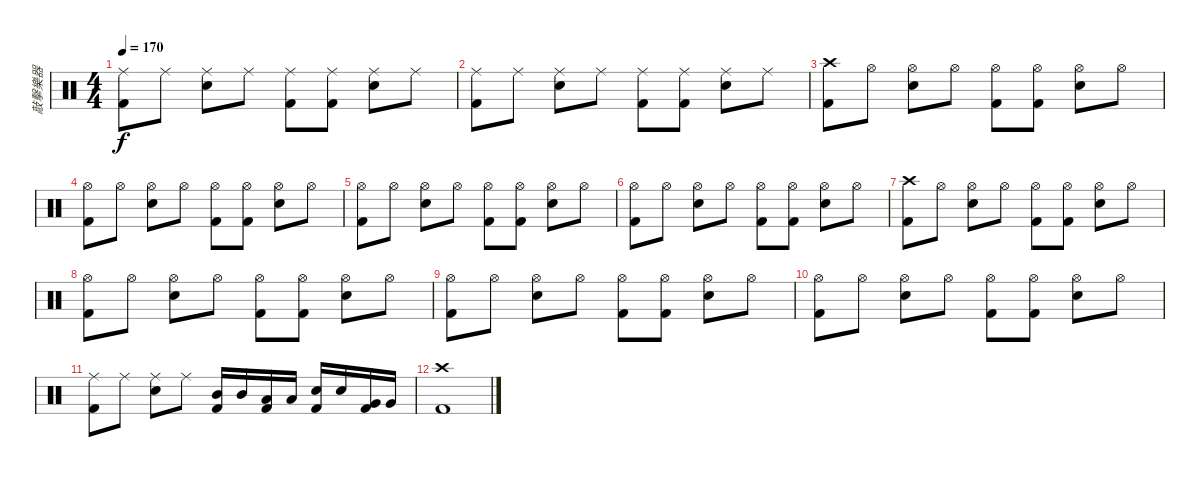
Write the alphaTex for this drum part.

\track ("敲擊樂器" "敲擊樂器") {instrument percussion}
\staff {score}
\articulation defaults
\ts (4 4)
\tempo 170
\clef neutral
\ks c
("Ride (middle)" "Kick (hit) 2").8{dy f} "Ride (middle)".8 ("Ride (middle)" "Snare (hit) 2").8 "Ride (middle)".8 ("Ride (middle)" "Kick (hit) 2").8 ("Ride (middle)" "Kick (hit) 2").8 ("Ride (middle)" "Snare (hit) 2").8 "Ride (middle)".8 |
("Ride (middle)" "Kick (hit) 2").8 "Ride (middle)".8 ("Ride (middle)" "Snare (hit) 2").8 "Ride (middle)".8 ("Ride (middle)" "Kick (hit) 2").8 ("Ride (middle)" "Kick (hit) 2").8 ("Ride (middle)" "Snare (hit) 2").8 "Ride (middle)".8 |
("Crash high (hit)" "Kick (hit) 2").8 "Hi-Hat (open)".8 ("Hi-Hat (open)" "Snare (hit) 2").8 "Hi-Hat (open)".8 ("Hi-Hat (open)" "Kick (hit) 2").8 ("Hi-Hat (open)" "Kick (hit) 2").8 ("Hi-Hat (open)" "Snare (hit) 2").8 "Hi-Hat (open)".8 |
("Hi-Hat (open)" "Kick (hit) 2").8 "Hi-Hat (open)".8 ("Hi-Hat (open)" "Snare (hit) 2").8 "Hi-Hat (open)".8 ("Hi-Hat (open)" "Kick (hit) 2").8 ("Hi-Hat (open)" "Kick (hit) 2").8 ("Hi-Hat (open)" "Snare (hit) 2").8 "Hi-Hat (open)".8 |
("Hi-Hat (open)" "Kick (hit) 2").8 "Hi-Hat (open)".8 ("Hi-Hat (open)" "Snare (hit) 2").8 "Hi-Hat (open)".8 ("Hi-Hat (open)" "Kick (hit) 2").8 ("Hi-Hat (open)" "Kick (hit) 2").8 ("Hi-Hat (open)" "Snare (hit) 2").8 "Hi-Hat (open)".8 |
("Hi-Hat (open)" "Kick (hit) 2").8 "Hi-Hat (open)".8 ("Hi-Hat (open)" "Snare (hit) 2").8 "Hi-Hat (open)".8 ("Hi-Hat (open)" "Kick (hit) 2").8 ("Hi-Hat (open)" "Kick (hit) 2").8 ("Hi-Hat (open)" "Snare (hit) 2").8 "Hi-Hat (open)".8 |
("Crash high (hit)" "Kick (hit) 2").8 "Hi-Hat (open)".8 ("Hi-Hat (open)" "Snare (hit) 2").8 "Hi-Hat (open)".8 ("Hi-Hat (open)" "Kick (hit) 2").8 ("Hi-Hat (open)" "Kick (hit) 2").8 ("Hi-Hat (open)" "Snare (hit) 2").8 "Hi-Hat (open)".8 |
("Hi-Hat (open)" "Kick (hit) 2").8 "Hi-Hat (open)".8 ("Hi-Hat (open)" "Snare (hit) 2").8 "Hi-Hat (open)".8 ("Hi-Hat (open)" "Kick (hit) 2").8 ("Hi-Hat (open)" "Kick (hit) 2").8 ("Hi-Hat (open)" "Snare (hit) 2").8 "Hi-Hat (open)".8 |
("Hi-Hat (open)" "Kick (hit) 2").8 "Hi-Hat (open)".8 ("Hi-Hat (open)" "Snare (hit) 2").8 "Hi-Hat (open)".8 ("Hi-Hat (open)" "Kick (hit) 2").8 ("Hi-Hat (open)" "Kick (hit) 2").8 ("Hi-Hat (open)" "Snare (hit) 2").8 "Hi-Hat (open)".8 |
("Hi-Hat (open)" "Kick (hit) 2").8 "Hi-Hat (open)".8 ("Hi-Hat (open)" "Snare (hit) 2").8 "Hi-Hat (open)".8 ("Hi-Hat (open)" "Kick (hit) 2").8 ("Hi-Hat (open)" "Kick (hit) 2").8 ("Hi-Hat (open)" "Snare (hit) 2").8 "Hi-Hat (open)".8 |
("Ride (middle)" "Kick (hit) 2").8 "Ride (middle)".8 ("Ride (middle)" "Snare (hit) 2").8 "Ride (middle)".8 ("Mid Tom (hit)" "Kick (hit) 2").16 "Mid Tom (hit)".16 ("Low Tom (hit)" "Kick (hit) 2").16 "Low Tom (hit)".16 ("Snare (hit) 2" "Kick (hit) 2").16 "Snare (hit) 2".16 ("Very Low Tom (hit)" "Kick (hit) 2").16 "Very Low Tom (hit)".16 |
("Crash high (hit)" "Kick (hit) 2").1
